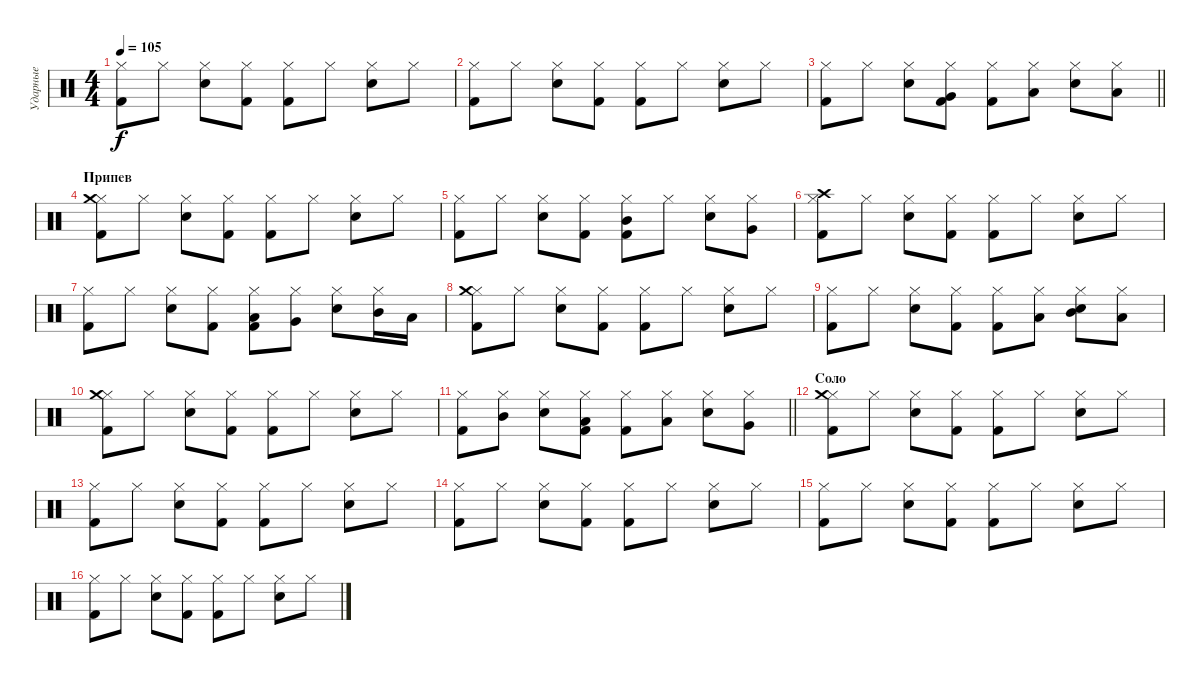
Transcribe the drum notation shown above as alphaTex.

\track ("Ударные" "Ударные") {instrument percussion}
\staff {score}
\articulation defaults
\ts (4 4)
\tempo 105
\clef neutral
\ks c
("Kick (hit) 2" "Hi-Hat (closed)").8{dy f} "Hi-Hat (closed)".8 ("Hi-Hat (closed)" "Electric Snare (hit)").8 ("Kick (hit) 2" "Hi-Hat (closed)").8 ("Kick (hit) 2" "Hi-Hat (closed)").8 "Hi-Hat (closed)".8 ("Electric Snare (hit)" "Hi-Hat (closed)").8 "Hi-Hat (closed)".8 |
("Kick (hit) 2" "Hi-Hat (closed)").8 "Hi-Hat (closed)".8 ("Hi-Hat (closed)" "Electric Snare (hit)").8 ("Kick (hit) 2" "Hi-Hat (closed)").8 ("Kick (hit) 2" "Hi-Hat (closed)").8 "Hi-Hat (closed)".8 ("Electric Snare (hit)" "Hi-Hat (closed)").8 "Hi-Hat (closed)".8 |
\barLineRight lightlight
("Kick (hit) 2" "Hi-Hat (closed)").8 "Hi-Hat (closed)".8 ("Hi-Hat (closed)" "Electric Snare (hit)").8 ("Kick (hit) 2" "Hi-Hat (closed)" "Very Low Tom (hit)").8 ("Kick (hit) 2" "Hi-Hat (closed)").8 ("Hi-Hat (closed)" "Low Tom (hit)").8 ("Electric Snare (hit)" "Hi-Hat (closed)").8 ("Hi-Hat (closed)" "Low Floor Tom (hit)").8 |
\section ("" "Припев")
("Kick (hit) 2" "Hi-Hat (closed)" "Crash medium (hit)").8 "Hi-Hat (closed)".8 ("Hi-Hat (closed)" "Electric Snare (hit)").8 ("Kick (hit) 2" "Hi-Hat (closed)").8 ("Kick (hit) 2" "Hi-Hat (closed)").8 "Hi-Hat (closed)".8 ("Electric Snare (hit)" "Hi-Hat (closed)").8 "Hi-Hat (closed)".8 |
("Kick (hit) 2" "Hi-Hat (closed)").8 "Hi-Hat (closed)".8 ("Hi-Hat (closed)" "Electric Snare (hit)").8 ("Kick (hit) 2" "Hi-Hat (closed)").8 ("Kick (hit) 2" "Hi-Hat (closed)" "Mid Tom (hit)").8 "Hi-Hat (closed)".8 ("Electric Snare (hit)" "Hi-Hat (closed)").8 ("Hi-Hat (closed)" "Very Low Tom (hit)").8 |
("Kick (hit) 2" "Hi-Hat (closed)" "Crash high (hit)").8 "Hi-Hat (closed)".8 ("Hi-Hat (closed)" "Electric Snare (hit)").8 ("Kick (hit) 2" "Hi-Hat (closed)").8 ("Kick (hit) 2" "Hi-Hat (closed)").8 "Hi-Hat (closed)".8 ("Electric Snare (hit)" "Hi-Hat (closed)").8 "Hi-Hat (closed)".8 |
("Kick (hit) 2" "Hi-Hat (closed)").8 "Hi-Hat (closed)".8 ("Hi-Hat (closed)" "Electric Snare (hit)").8 ("Kick (hit) 2" "Hi-Hat (closed)").8 ("Kick (hit) 2" "Hi-Hat (closed)" "Low Tom (hit)").8 ("Hi-Hat (closed)" "Very Low Tom (hit)").8 ("Electric Snare (hit)" "Hi-Hat (closed)").8 ("Hi-Hat (closed)" "Mid Tom (hit)").16 "Low Floor Tom (hit)".16 |
("Kick (hit) 2" "Hi-Hat (closed)" "Crash medium (hit)").8 "Hi-Hat (closed)".8 ("Hi-Hat (closed)" "Electric Snare (hit)").8 ("Kick (hit) 2" "Hi-Hat (closed)").8 ("Kick (hit) 2" "Hi-Hat (closed)").8 "Hi-Hat (closed)".8 ("Electric Snare (hit)" "Hi-Hat (closed)").8 "Hi-Hat (closed)".8 |
("Kick (hit) 2" "Hi-Hat (closed)").8 "Hi-Hat (closed)".8 ("Hi-Hat (closed)" "Electric Snare (hit)").8 ("Kick (hit) 2" "Hi-Hat (closed)").8 ("Kick (hit) 2" "Hi-Hat (closed)").8 ("Hi-Hat (closed)" "Low Floor Tom (hit)").8 ("Electric Snare (hit)" "Hi-Hat (closed)" "Mid Tom (hit)").8 ("Hi-Hat (closed)" "Low Tom (hit)").8 |
("Kick (hit) 2" "Hi-Hat (closed)" "Crash medium (hit)").8 "Hi-Hat (closed)".8 ("Hi-Hat (closed)" "Electric Snare (hit)").8 ("Kick (hit) 2" "Hi-Hat (closed)").8 ("Kick (hit) 2" "Hi-Hat (closed)").8 "Hi-Hat (closed)".8 ("Electric Snare (hit)" "Hi-Hat (closed)").8 "Hi-Hat (closed)".8 |
\barLineRight lightlight
("Kick (hit) 2" "Hi-Hat (closed)").8 ("Hi-Hat (closed)" "Mid Tom (hit)").8 ("Hi-Hat (closed)" "Electric Snare (hit)").8 ("Kick (hit) 2" "Hi-Hat (closed)" "Low Floor Tom (hit)").8 ("Kick (hit) 2" "Hi-Hat (closed)").8 ("Hi-Hat (closed)" "Low Tom (hit)").8 ("Electric Snare (hit)" "Hi-Hat (closed)").8 ("Hi-Hat (closed)" "Very Low Tom (hit)").8 |
\section ("" "Соло")
("Kick (hit) 2" "Hi-Hat (closed)" "Crash medium (hit)").8 "Hi-Hat (closed)".8 ("Hi-Hat (closed)" "Electric Snare (hit)").8 ("Kick (hit) 2" "Hi-Hat (closed)").8 ("Kick (hit) 2" "Hi-Hat (closed)").8 "Hi-Hat (closed)".8 ("Electric Snare (hit)" "Hi-Hat (closed)").8 "Hi-Hat (closed)".8 |
("Kick (hit) 2" "Hi-Hat (closed)").8 "Hi-Hat (closed)".8 ("Hi-Hat (closed)" "Electric Snare (hit)").8 ("Kick (hit) 2" "Hi-Hat (closed)").8 ("Kick (hit) 2" "Hi-Hat (closed)").8 "Hi-Hat (closed)".8 ("Electric Snare (hit)" "Hi-Hat (closed)").8 "Hi-Hat (closed)".8 |
("Kick (hit) 2" "Hi-Hat (closed)").8 "Hi-Hat (closed)".8 ("Hi-Hat (closed)" "Electric Snare (hit)").8 ("Kick (hit) 2" "Hi-Hat (closed)").8 ("Kick (hit) 2" "Hi-Hat (closed)").8 "Hi-Hat (closed)".8 ("Electric Snare (hit)" "Hi-Hat (closed)").8 "Hi-Hat (closed)".8 |
("Kick (hit) 2" "Hi-Hat (closed)").8 "Hi-Hat (closed)".8 ("Hi-Hat (closed)" "Electric Snare (hit)").8 ("Kick (hit) 2" "Hi-Hat (closed)").8 ("Kick (hit) 2" "Hi-Hat (closed)").8 "Hi-Hat (closed)".8 ("Electric Snare (hit)" "Hi-Hat (closed)").8 "Hi-Hat (closed)".8 |
("Kick (hit) 2" "Hi-Hat (closed)").8 "Hi-Hat (closed)".8 ("Hi-Hat (closed)" "Electric Snare (hit)").8 ("Kick (hit) 2" "Hi-Hat (closed)").8 ("Kick (hit) 2" "Hi-Hat (closed)").8 "Hi-Hat (closed)".8 ("Electric Snare (hit)" "Hi-Hat (closed)").8 "Hi-Hat (closed)".8
